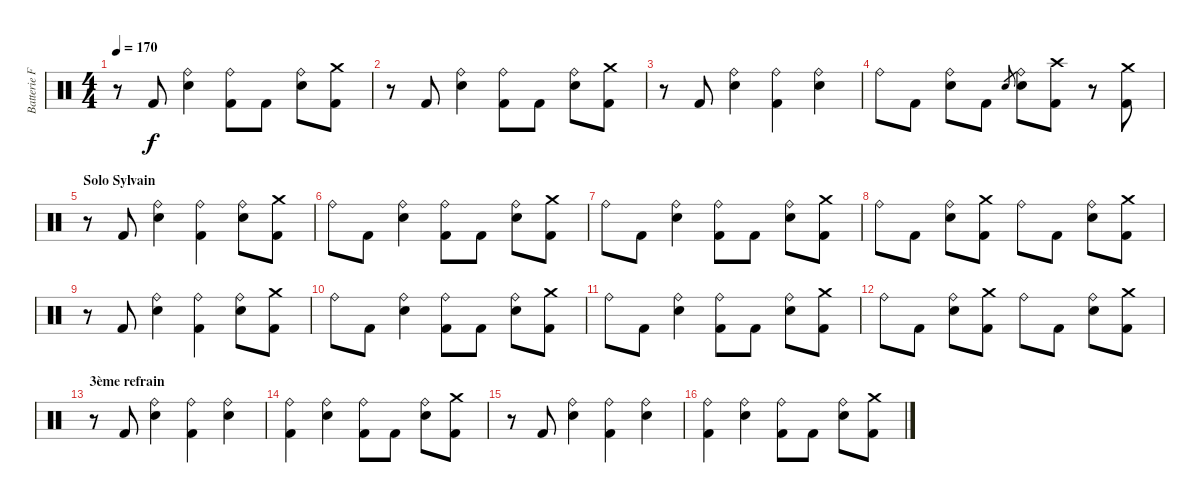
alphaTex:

\track ("Batterie Franck" "Batterie F") {instrument percussion}
\staff {score}
\articulation defaults
\ts (4 4)
\tempo 170
\clef neutral
\ks c
r.8{dy f} "Kick (hit) 2".8 ("Ride (bell)" "Snare (hit) 2").4 ("Ride (bell)" "Kick (hit) 2").8 "Kick (hit) 2".8 ("Ride (bell)" "Snare (hit) 2").8 ("Crash medium (hit)" "Kick (hit) 2").8 |
r.8 "Kick (hit) 2".8 ("Ride (bell)" "Snare (hit) 2").4 ("Ride (bell)" "Kick (hit) 2").8 "Kick (hit) 2".8 ("Ride (bell)" "Snare (hit) 2").8 ("Crash medium (hit)" "Kick (hit) 2").8 |
r.8 "Kick (hit) 2".8 ("Ride (bell)" "Snare (hit) 2").4 ("Ride (bell)" "Kick (hit) 2").4 ("Ride (bell)" "Snare (hit) 2").4 |
"Ride (bell)".8 "Kick (hit) 2".8 ("Ride (bell)" "Snare (hit) 2").8 "Kick (hit) 2".8 "Snare (hit) 2".8{gr} ("Ride (bell)" "Snare (hit) 2").8 ("Crash high (hit)" "Kick (hit) 2").8 r.8 ("Crash medium (hit)" "Kick (hit) 2").8 |
\section ("" "Solo Sylvain")
r.8 "Kick (hit) 2".8 ("Ride (bell)" "Snare (hit) 2").4 ("Ride (bell)" "Kick (hit) 2").4 ("Ride (bell)" "Snare (hit) 2").8 ("Crash medium (hit)" "Kick (hit) 2").8 |
"Ride (bell)".8 "Kick (hit) 2".8 ("Ride (bell)" "Snare (hit) 2").4 ("Ride (bell)" "Kick (hit) 2").8 "Kick (hit) 2".8 ("Ride (bell)" "Snare (hit) 2").8 ("Crash medium (hit)" "Kick (hit) 2").8 |
"Ride (bell)".8 "Kick (hit) 2".8 ("Ride (bell)" "Snare (hit) 2").4 ("Ride (bell)" "Kick (hit) 2").8 "Kick (hit) 2".8 ("Ride (bell)" "Snare (hit) 2").8 ("Crash medium (hit)" "Kick (hit) 2").8 |
"Ride (bell)".8 "Kick (hit) 2".8 ("Ride (bell)" "Snare (hit) 2").8 ("Crash medium (hit)" "Kick (hit) 2").8 "Ride (bell)".8 "Kick (hit) 2".8 ("Ride (bell)" "Snare (hit) 2").8 ("Crash medium (hit)" "Kick (hit) 2").8 |
r.8 "Kick (hit) 2".8 ("Ride (bell)" "Snare (hit) 2").4 ("Ride (bell)" "Kick (hit) 2").4 ("Ride (bell)" "Snare (hit) 2").8 ("Crash medium (hit)" "Kick (hit) 2").8 |
"Ride (bell)".8 "Kick (hit) 2".8 ("Ride (bell)" "Snare (hit) 2").4 ("Ride (bell)" "Kick (hit) 2").8 "Kick (hit) 2".8 ("Ride (bell)" "Snare (hit) 2").8 ("Crash medium (hit)" "Kick (hit) 2").8 |
"Ride (bell)".8 "Kick (hit) 2".8 ("Ride (bell)" "Snare (hit) 2").4 ("Ride (bell)" "Kick (hit) 2").8 "Kick (hit) 2".8 ("Ride (bell)" "Snare (hit) 2").8 ("Crash medium (hit)" "Kick (hit) 2").8 |
"Ride (bell)".8 "Kick (hit) 2".8 ("Ride (bell)" "Snare (hit) 2").8 ("Crash medium (hit)" "Kick (hit) 2").8 "Ride (bell)".8 "Kick (hit) 2".8 ("Ride (bell)" "Snare (hit) 2").8 ("Crash medium (hit)" "Kick (hit) 2").8 |
\section ("" "3ème refrain")
r.8 "Kick (hit) 2".8 ("Ride (bell)" "Snare (hit) 2").4 ("Ride (bell)" "Kick (hit) 2").4 ("Ride (bell)" "Snare (hit) 2").4 |
("Ride (bell)" "Kick (hit) 2").4 ("Ride (bell)" "Snare (hit) 2").4 ("Ride (bell)" "Kick (hit) 2").8 "Kick (hit) 2".8 ("Ride (bell)" "Snare (hit) 2").8 ("Crash medium (hit)" "Kick (hit) 2").8 |
r.8 "Kick (hit) 2".8 ("Ride (bell)" "Snare (hit) 2").4 ("Ride (bell)" "Kick (hit) 2").4 ("Ride (bell)" "Snare (hit) 2").4 |
("Ride (bell)" "Kick (hit) 2").4 ("Ride (bell)" "Snare (hit) 2").4 ("Ride (bell)" "Kick (hit) 2").8 "Kick (hit) 2".8 ("Ride (bell)" "Snare (hit) 2").8 ("Crash medium (hit)" "Kick (hit) 2").8
